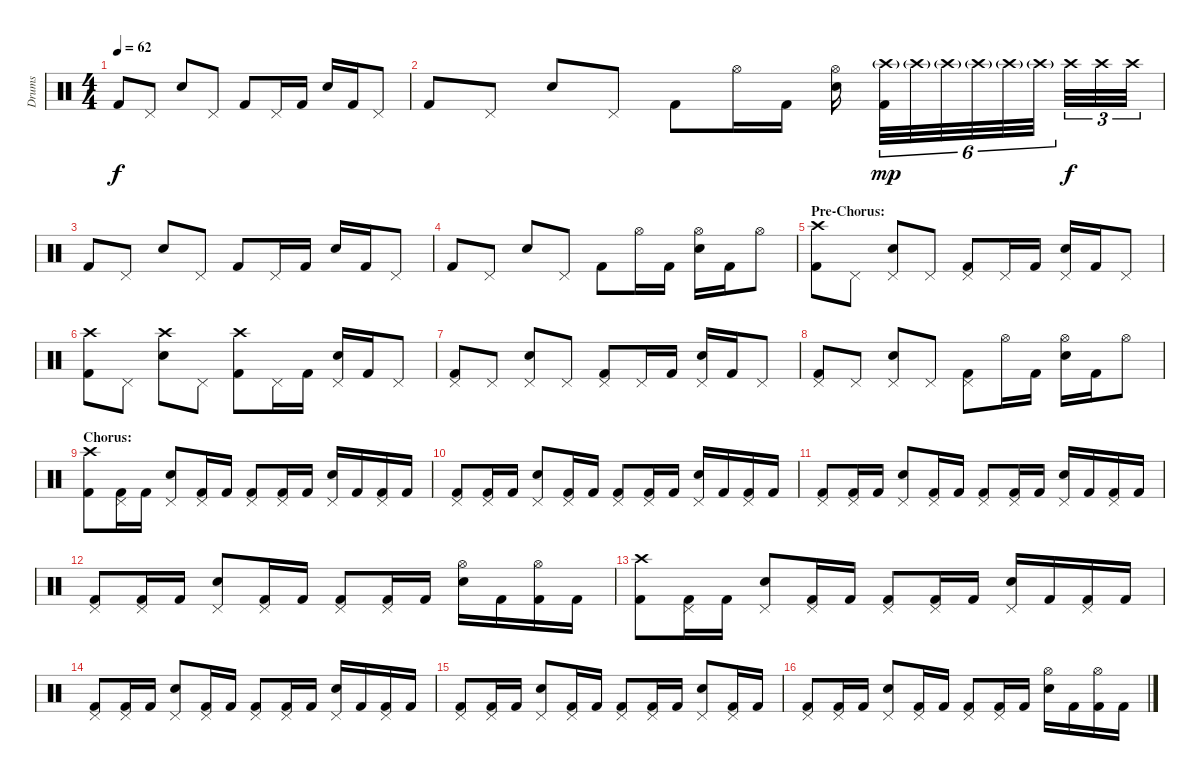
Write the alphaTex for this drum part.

\track ("Drums" "Drums") {instrument percussion}
\staff {score}
\articulation defaults
\ts (4 4)
\tempo 62
\clef neutral
\ks c "Kick (hit) 2".8{dy f} "Pedal Hi-Hat (hit)".8 "Snare (hit) 2".8 "Pedal Hi-Hat (hit)".8 "Kick (hit) 2".8 "Pedal Hi-Hat (hit)".16 "Kick (hit) 2".16 "Snare (hit) 2".16 "Kick (hit) 2".16 "Pedal Hi-Hat (hit)".8
|
"Kick (hit) 2".8 "Pedal Hi-Hat (hit)".8 "Snare (hit) 2".8 "Pedal Hi-Hat (hit)".8 "Kick (hit) 2".8 "Hi-Hat (open)".16 "Kick (hit) 2".16 ("Hi-Hat (open)" "Snare (hit) 2").16 ("Crash high (hit)"{g} "Kick (hit) 2").32{tu (6 4) dy mp} "Crash high (hit)"{g}.32{tu (6 4)} "Crash high (hit)"{g}.32{tu (6 4)} "Crash high (hit)"{g}.32{tu (6 4)} "Crash high (hit)"{g}.32{tu (6 4)} "Crash high (hit)"{g}.32{tu (6 4)} "Crash high (hit)".32{tu (3 2) dy f} "Crash high (hit)".32{tu (3 2)} "Crash high (hit)".32{tu (3 2)} |
"Kick (hit) 2".8 "Pedal Hi-Hat (hit)".8 "Snare (hit) 2".8 "Pedal Hi-Hat (hit)".8 "Kick (hit) 2".8 "Pedal Hi-Hat (hit)".16 "Kick (hit) 2".16 "Snare (hit) 2".16 "Kick (hit) 2".16 "Pedal Hi-Hat (hit)".8 |
"Kick (hit) 2".8 "Pedal Hi-Hat (hit)".8 "Snare (hit) 2".8 "Pedal Hi-Hat (hit)".8 "Kick (hit) 2".8 "Hi-Hat (open)".16 "Kick (hit) 2".16 ("Hi-Hat (open)" "Snare (hit) 2").16 "Kick (hit) 2".16 "Hi-Hat (open)".8 |
\section ("" "Pre-Chorus:")
("Crash high (hit)" "Kick (hit) 2").8 "Pedal Hi-Hat (hit)".8 ("Pedal Hi-Hat (hit)" "Snare (hit) 2").8 "Pedal Hi-Hat (hit)".8 ("Pedal Hi-Hat (hit)" "Kick (hit) 2").8 "Pedal Hi-Hat (hit)".16 "Kick (hit) 2".16 ("Pedal Hi-Hat (hit)" "Snare (hit) 2").16 "Kick (hit) 2".16 "Pedal Hi-Hat (hit)".8 |
("Crash high (hit)" "Kick (hit) 2").8 "Pedal Hi-Hat (hit)".8 ("Crash high (hit)" "Snare (hit) 2").8 "Pedal Hi-Hat (hit)".8 ("Crash high (hit)" "Kick (hit) 2").8 "Pedal Hi-Hat (hit)".16 "Kick (hit) 2".16 ("Pedal Hi-Hat (hit)" "Snare (hit) 2").16 "Kick (hit) 2".16 "Pedal Hi-Hat (hit)".8 |
("Pedal Hi-Hat (hit)" "Kick (hit) 2").8 "Pedal Hi-Hat (hit)".8 ("Pedal Hi-Hat (hit)" "Snare (hit) 2").8 "Pedal Hi-Hat (hit)".8 ("Pedal Hi-Hat (hit)" "Kick (hit) 2").8 "Pedal Hi-Hat (hit)".16 "Kick (hit) 2".16 ("Pedal Hi-Hat (hit)" "Snare (hit) 2").16 "Kick (hit) 2".16 "Pedal Hi-Hat (hit)".8 |
("Pedal Hi-Hat (hit)" "Kick (hit) 2").8 "Pedal Hi-Hat (hit)".8 ("Pedal Hi-Hat (hit)" "Snare (hit) 2").8 "Pedal Hi-Hat (hit)".8 ("Pedal Hi-Hat (hit)" "Kick (hit) 2").8 "Hi-Hat (open)".16 "Kick (hit) 2".16 ("Hi-Hat (open)" "Snare (hit) 2").16 "Kick (hit) 2".16 "Hi-Hat (open)".8 |
\section ("" "Chorus:")
("Crash high (hit)" "Kick (hit) 2").8 ("Pedal Hi-Hat (hit)" "Kick (hit) 2").16 "Kick (hit) 2".16 ("Pedal Hi-Hat (hit)" "Snare (hit) 2").8 ("Pedal Hi-Hat (hit)" "Kick (hit) 2").16 "Kick (hit) 2".16 ("Pedal Hi-Hat (hit)" "Kick (hit) 2").8 ("Pedal Hi-Hat (hit)" "Kick (hit) 2").16 "Kick (hit) 2".16 ("Pedal Hi-Hat (hit)" "Snare (hit) 2").16 "Kick (hit) 2".16 ("Pedal Hi-Hat (hit)" "Kick (hit) 2").16 "Kick (hit) 2".16 |
("Pedal Hi-Hat (hit)" "Kick (hit) 2").8 ("Pedal Hi-Hat (hit)" "Kick (hit) 2").16 "Kick (hit) 2".16 ("Pedal Hi-Hat (hit)" "Snare (hit) 2").8 ("Pedal Hi-Hat (hit)" "Kick (hit) 2").16 "Kick (hit) 2".16 ("Pedal Hi-Hat (hit)" "Kick (hit) 2").8 ("Pedal Hi-Hat (hit)" "Kick (hit) 2").16 "Kick (hit) 2".16 ("Pedal Hi-Hat (hit)" "Snare (hit) 2").16 "Kick (hit) 2".16 ("Pedal Hi-Hat (hit)" "Kick (hit) 2").16 "Kick (hit) 2".16 |
("Pedal Hi-Hat (hit)" "Kick (hit) 2").8 ("Pedal Hi-Hat (hit)" "Kick (hit) 2").16 "Kick (hit) 2".16 ("Pedal Hi-Hat (hit)" "Snare (hit) 2").8 ("Pedal Hi-Hat (hit)" "Kick (hit) 2").16 "Kick (hit) 2".16 ("Pedal Hi-Hat (hit)" "Kick (hit) 2").8 ("Pedal Hi-Hat (hit)" "Kick (hit) 2").16 "Kick (hit) 2".16 ("Pedal Hi-Hat (hit)" "Snare (hit) 2").16 "Kick (hit) 2".16 ("Pedal Hi-Hat (hit)" "Kick (hit) 2").16 "Kick (hit) 2".16 |
("Pedal Hi-Hat (hit)" "Kick (hit) 2").8 ("Pedal Hi-Hat (hit)" "Kick (hit) 2").16 "Kick (hit) 2".16 ("Pedal Hi-Hat (hit)" "Snare (hit) 2").8 ("Pedal Hi-Hat (hit)" "Kick (hit) 2").16 "Kick (hit) 2".16 ("Pedal Hi-Hat (hit)" "Kick (hit) 2").8 ("Pedal Hi-Hat (hit)" "Kick (hit) 2").16 "Kick (hit) 2".16 ("Hi-Hat (open)" "Snare (hit) 2").16 "Kick (hit) 2".16 ("Hi-Hat (open)" "Kick (hit) 2").16 "Kick (hit) 2".16 |
("Crash high (hit)" "Kick (hit) 2").8 ("Pedal Hi-Hat (hit)" "Kick (hit) 2").16 "Kick (hit) 2".16 ("Pedal Hi-Hat (hit)" "Snare (hit) 2").8 ("Pedal Hi-Hat (hit)" "Kick (hit) 2").16 "Kick (hit) 2".16 ("Pedal Hi-Hat (hit)" "Kick (hit) 2").8 ("Pedal Hi-Hat (hit)" "Kick (hit) 2").16 "Kick (hit) 2".16 ("Pedal Hi-Hat (hit)" "Snare (hit) 2").16 "Kick (hit) 2".16 ("Pedal Hi-Hat (hit)" "Kick (hit) 2").16 "Kick (hit) 2".16 |
("Pedal Hi-Hat (hit)" "Kick (hit) 2").8 ("Pedal Hi-Hat (hit)" "Kick (hit) 2").16 "Kick (hit) 2".16 ("Pedal Hi-Hat (hit)" "Snare (hit) 2").8 ("Pedal Hi-Hat (hit)" "Kick (hit) 2").16 "Kick (hit) 2".16 ("Pedal Hi-Hat (hit)" "Kick (hit) 2").8 ("Pedal Hi-Hat (hit)" "Kick (hit) 2").16 "Kick (hit) 2".16 ("Pedal Hi-Hat (hit)" "Snare (hit) 2").16 "Kick (hit) 2".16 ("Pedal Hi-Hat (hit)" "Kick (hit) 2").16 "Kick (hit) 2".16 |
("Pedal Hi-Hat (hit)" "Kick (hit) 2").8 ("Pedal Hi-Hat (hit)" "Kick (hit) 2").16 "Kick (hit) 2".16 ("Pedal Hi-Hat (hit)" "Snare (hit) 2").8 ("Pedal Hi-Hat (hit)" "Kick (hit) 2").16 "Kick (hit) 2".16 ("Pedal Hi-Hat (hit)" "Kick (hit) 2").8 ("Pedal Hi-Hat (hit)" "Kick (hit) 2").16 "Kick (hit) 2".16 ("Pedal Hi-Hat (hit)" "Snare (hit) 2").8 ("Pedal Hi-Hat (hit)" "Kick (hit) 2").16 "Kick (hit) 2".16 |
("Pedal Hi-Hat (hit)" "Kick (hit) 2").8 ("Pedal Hi-Hat (hit)" "Kick (hit) 2").16 "Kick (hit) 2".16 ("Pedal Hi-Hat (hit)" "Snare (hit) 2").8 ("Pedal Hi-Hat (hit)" "Kick (hit) 2").16 "Kick (hit) 2".16 ("Pedal Hi-Hat (hit)" "Kick (hit) 2").8 ("Pedal Hi-Hat (hit)" "Kick (hit) 2").16 "Kick (hit) 2".16 ("Hi-Hat (open)" "Snare (hit) 2").16 "Kick (hit) 2".16 ("Hi-Hat (open)" "Kick (hit) 2").16 "Kick (hit) 2".16
